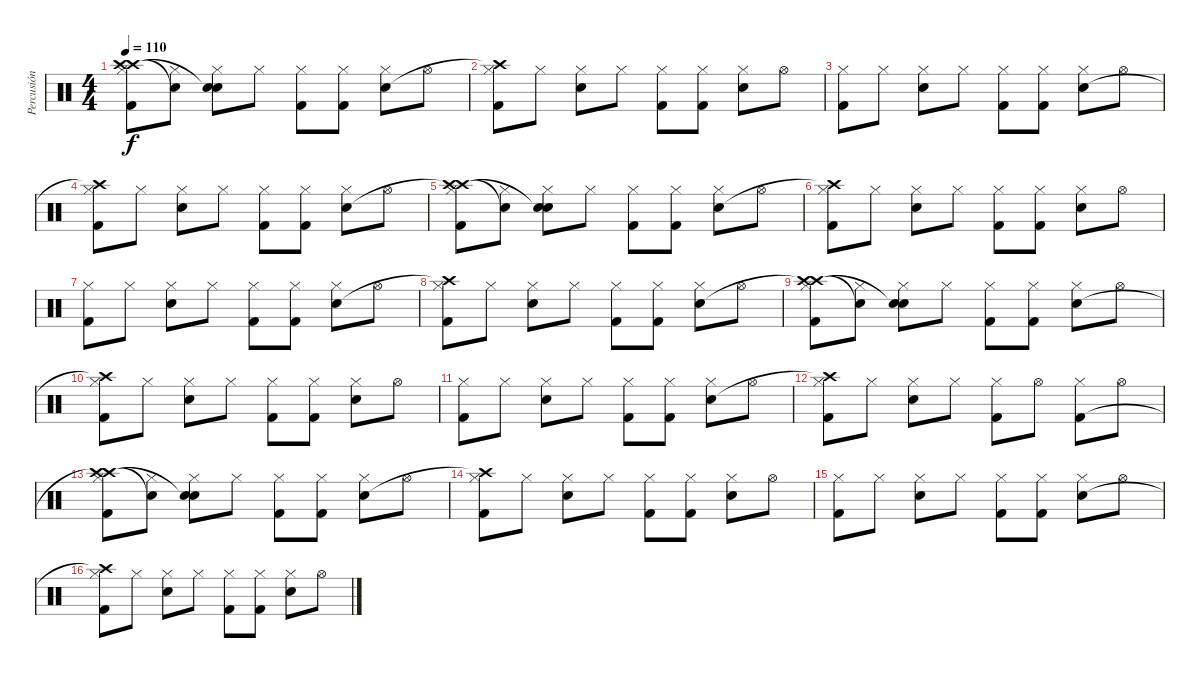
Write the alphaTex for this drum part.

\track ("Percusión" "Percusión") {instrument percussion}
\staff {score}
\articulation defaults
\ts (4 4)
\tempo 110
\clef neutral
\ks c
("Hi-Hat (closed)" "Crash high (hit)"{t} "Crash high (hit)" "Kick (hit) 2").8{dy f} ("Hi-Hat (closed)" "Snare (hit)"{t}).8 ("Hi-Hat (closed)" "Electric Snare (hit)" "Snare (hit)"{t}).8 "Hi-Hat (closed)".8 ("Hi-Hat (closed)" "Kick (hit) 2").8 ("Hi-Hat (closed)" "Kick (hit) 2").8 ("Hi-Hat (closed)" "Electric Snare (hit)").8 "Hi-Hat (open)".8 |
("Hi-Hat (closed)" "Crash high (hit)"{t} "Kick (hit) 2").8 "Hi-Hat (closed)".8 ("Hi-Hat (closed)" "Electric Snare (hit)").8 "Hi-Hat (closed)".8 ("Hi-Hat (closed)" "Kick (hit) 2").8 ("Hi-Hat (closed)" "Kick (hit) 2").8 ("Hi-Hat (closed)" "Electric Snare (hit)").8 "Hi-Hat (open)".8 |
("Hi-Hat (closed)" "Kick (hit) 2").8 "Hi-Hat (closed)".8 ("Hi-Hat (closed)" "Electric Snare (hit)").8 "Hi-Hat (closed)".8 ("Hi-Hat (closed)" "Kick (hit) 2").8 ("Hi-Hat (closed)" "Kick (hit) 2").8 ("Hi-Hat (closed)" "Electric Snare (hit)").8 "Hi-Hat (open)".8 |
("Hi-Hat (closed)" "Crash high (hit)"{t} "Kick (hit) 2").8 "Hi-Hat (closed)".8 ("Hi-Hat (closed)" "Electric Snare (hit)").8 "Hi-Hat (closed)".8 ("Hi-Hat (closed)" "Kick (hit) 2").8 ("Hi-Hat (closed)" "Kick (hit) 2").8 ("Hi-Hat (closed)" "Electric Snare (hit)").8 "Hi-Hat (open)".8 |
("Hi-Hat (closed)" "Crash high (hit)"{t} "Crash high (hit)" "Kick (hit) 2").8 ("Hi-Hat (closed)" "Snare (hit)"{t}).8 ("Hi-Hat (closed)" "Electric Snare (hit)" "Snare (hit)"{t}).8 "Hi-Hat (closed)".8 ("Hi-Hat (closed)" "Kick (hit) 2").8 ("Hi-Hat (closed)" "Kick (hit) 2").8 ("Hi-Hat (closed)" "Electric Snare (hit)").8 "Hi-Hat (open)".8 |
("Hi-Hat (closed)" "Crash high (hit)"{t} "Kick (hit) 2").8 "Hi-Hat (closed)".8 ("Hi-Hat (closed)" "Electric Snare (hit)").8 "Hi-Hat (closed)".8 ("Hi-Hat (closed)" "Kick (hit) 2").8 ("Hi-Hat (closed)" "Kick (hit) 2").8 ("Hi-Hat (closed)" "Electric Snare (hit)").8 "Hi-Hat (open)".8 |
("Hi-Hat (closed)" "Kick (hit) 2").8 "Hi-Hat (closed)".8 ("Hi-Hat (closed)" "Electric Snare (hit)").8 "Hi-Hat (closed)".8 ("Hi-Hat (closed)" "Kick (hit) 2").8 ("Hi-Hat (closed)" "Kick (hit) 2").8 ("Hi-Hat (closed)" "Electric Snare (hit)").8 "Hi-Hat (open)".8 |
("Hi-Hat (closed)" "Crash high (hit)"{t} "Kick (hit) 2").8 "Hi-Hat (closed)".8 ("Hi-Hat (closed)" "Electric Snare (hit)").8 "Hi-Hat (closed)".8 ("Hi-Hat (closed)" "Kick (hit) 2").8 ("Hi-Hat (closed)" "Kick (hit) 2").8 ("Hi-Hat (closed)" "Electric Snare (hit)").8 "Hi-Hat (open)".8 |
("Hi-Hat (closed)" "Crash high (hit)"{t} "Crash high (hit)" "Kick (hit) 2").8 ("Hi-Hat (closed)" "Snare (hit)"{t}).8 ("Hi-Hat (closed)" "Electric Snare (hit)" "Snare (hit)"{t}).8 "Hi-Hat (closed)".8 ("Hi-Hat (closed)" "Kick (hit) 2").8 ("Hi-Hat (closed)" "Kick (hit) 2").8 ("Hi-Hat (closed)" "Electric Snare (hit)").8 "Hi-Hat (open)".8 |
("Hi-Hat (closed)" "Crash high (hit)"{t} "Kick (hit) 2").8 "Hi-Hat (closed)".8 ("Hi-Hat (closed)" "Electric Snare (hit)").8 "Hi-Hat (closed)".8 ("Hi-Hat (closed)" "Kick (hit) 2").8 ("Hi-Hat (closed)" "Kick (hit) 2").8 ("Hi-Hat (closed)" "Electric Snare (hit)").8 "Hi-Hat (open)".8 |
("Hi-Hat (closed)" "Kick (hit) 2").8 "Hi-Hat (closed)".8 ("Hi-Hat (closed)" "Electric Snare (hit)").8 "Hi-Hat (closed)".8 ("Hi-Hat (closed)" "Kick (hit) 2").8 ("Hi-Hat (closed)" "Kick (hit) 2").8 ("Hi-Hat (closed)" "Electric Snare (hit)").8 "Hi-Hat (open)".8 |
("Hi-Hat (closed)" "Crash high (hit)"{t} "Kick (hit) 2").8 "Hi-Hat (closed)".8 ("Hi-Hat (closed)" "Electric Snare (hit)").8 "Hi-Hat (closed)".8 ("Hi-Hat (closed)" "Kick (hit) 2").8 "Hi-Hat (open)".8 ("Hi-Hat (closed)" "Kick (hit) 2").8 "Hi-Hat (open)".8 |
("Hi-Hat (closed)" "Crash high (hit)"{t} "Crash high (hit)" "Kick (hit) 2").8 ("Hi-Hat (closed)" "Snare (hit)"{t}).8 ("Hi-Hat (closed)" "Electric Snare (hit)" "Snare (hit)"{t}).8 "Hi-Hat (closed)".8 ("Hi-Hat (closed)" "Kick (hit) 2").8 ("Hi-Hat (closed)" "Kick (hit) 2").8 ("Hi-Hat (closed)" "Electric Snare (hit)").8 "Hi-Hat (open)".8 |
("Hi-Hat (closed)" "Crash high (hit)"{t} "Kick (hit) 2").8 "Hi-Hat (closed)".8 ("Hi-Hat (closed)" "Electric Snare (hit)").8 "Hi-Hat (closed)".8 ("Hi-Hat (closed)" "Kick (hit) 2").8 ("Hi-Hat (closed)" "Kick (hit) 2").8 ("Hi-Hat (closed)" "Electric Snare (hit)").8 "Hi-Hat (open)".8 |
("Hi-Hat (closed)" "Kick (hit) 2").8 "Hi-Hat (closed)".8 ("Hi-Hat (closed)" "Electric Snare (hit)").8 "Hi-Hat (closed)".8 ("Hi-Hat (closed)" "Kick (hit) 2").8 ("Hi-Hat (closed)" "Kick (hit) 2").8 ("Hi-Hat (closed)" "Electric Snare (hit)").8 "Hi-Hat (open)".8 |
("Hi-Hat (closed)" "Crash high (hit)"{t} "Kick (hit) 2").8 "Hi-Hat (closed)".8 ("Hi-Hat (closed)" "Electric Snare (hit)").8 "Hi-Hat (closed)".8 ("Hi-Hat (closed)" "Kick (hit) 2").8 ("Hi-Hat (closed)" "Kick (hit) 2").8 ("Hi-Hat (closed)" "Electric Snare (hit)").8 "Hi-Hat (open)".8
